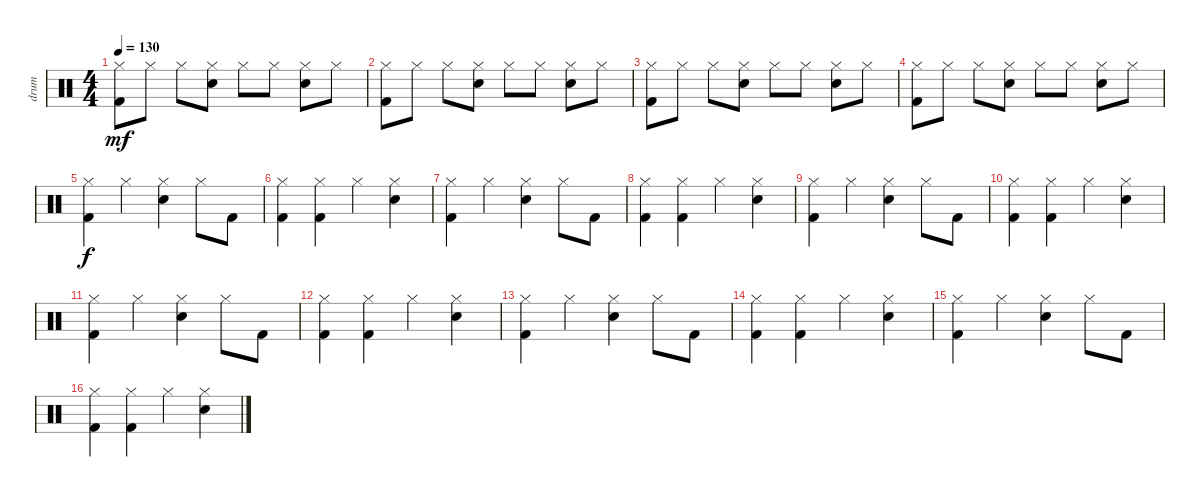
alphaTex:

\track ("drum" "drum") {instrument percussion}
\staff {score}
\articulation defaults
\ts (4 4)
\tempo 130
\clef neutral
\ks c
("Hi-Hat (closed)" "Kick (hit) 2").8{dy mf} "Hi-Hat (closed)".8 "Hi-Hat (closed)".8 ("Hi-Hat (closed)" "Snare (hit) 2").8 "Hi-Hat (closed)".8 "Hi-Hat (closed)".8 ("Hi-Hat (closed)" "Snare (hit) 2").8 "Hi-Hat (closed)".8 |
("Hi-Hat (closed)" "Kick (hit) 2").8 "Hi-Hat (closed)".8 "Hi-Hat (closed)".8 ("Hi-Hat (closed)" "Snare (hit) 2").8 "Hi-Hat (closed)".8 "Hi-Hat (closed)".8 ("Hi-Hat (closed)" "Snare (hit) 2").8 "Hi-Hat (closed)".8 |
("Hi-Hat (closed)" "Kick (hit) 2").8 "Hi-Hat (closed)".8 "Hi-Hat (closed)".8 ("Hi-Hat (closed)" "Snare (hit) 2").8 "Hi-Hat (closed)".8 "Hi-Hat (closed)".8 ("Hi-Hat (closed)" "Snare (hit) 2").8 "Hi-Hat (closed)".8 |
("Hi-Hat (closed)" "Kick (hit) 2").8 "Hi-Hat (closed)".8 "Hi-Hat (closed)".8 ("Hi-Hat (closed)" "Snare (hit) 2").8 "Hi-Hat (closed)".8 "Hi-Hat (closed)".8 ("Hi-Hat (closed)" "Snare (hit) 2").8 "Hi-Hat (closed)".8 |
("Hi-Hat (closed)" "Kick (hit) 2").4{dy f} "Hi-Hat (closed)".4 ("Hi-Hat (closed)" "Snare (hit) 2").4 "Hi-Hat (closed)".8 "Kick (hit) 2".8 |
("Hi-Hat (closed)" "Kick (hit) 2").4 ("Hi-Hat (closed)" "Kick (hit) 2").4 "Hi-Hat (closed)".4 ("Hi-Hat (closed)" "Snare (hit) 2").4 |
("Hi-Hat (closed)" "Kick (hit) 2").4 "Hi-Hat (closed)".4 ("Hi-Hat (closed)" "Snare (hit) 2").4 "Hi-Hat (closed)".8 "Kick (hit) 2".8 |
("Hi-Hat (closed)" "Kick (hit) 2").4 ("Hi-Hat (closed)" "Kick (hit) 2").4 "Hi-Hat (closed)".4 ("Hi-Hat (closed)" "Snare (hit) 2").4 |
("Hi-Hat (closed)" "Kick (hit) 2").4 "Hi-Hat (closed)".4 ("Hi-Hat (closed)" "Snare (hit) 2").4 "Hi-Hat (closed)".8 "Kick (hit) 2".8 |
("Hi-Hat (closed)" "Kick (hit) 2").4 ("Hi-Hat (closed)" "Kick (hit) 2").4 "Hi-Hat (closed)".4 ("Hi-Hat (closed)" "Snare (hit) 2").4 |
("Hi-Hat (closed)" "Kick (hit) 2").4 "Hi-Hat (closed)".4 ("Hi-Hat (closed)" "Snare (hit) 2").4 "Hi-Hat (closed)".8 "Kick (hit) 2".8 |
("Hi-Hat (closed)" "Kick (hit) 2").4 ("Hi-Hat (closed)" "Kick (hit) 2").4 "Hi-Hat (closed)".4 ("Hi-Hat (closed)" "Snare (hit) 2").4 |
("Hi-Hat (closed)" "Kick (hit) 2").4 "Hi-Hat (closed)".4 ("Hi-Hat (closed)" "Snare (hit) 2").4 "Hi-Hat (closed)".8 "Kick (hit) 2".8 |
("Hi-Hat (closed)" "Kick (hit) 2").4 ("Hi-Hat (closed)" "Kick (hit) 2").4 "Hi-Hat (closed)".4 ("Hi-Hat (closed)" "Snare (hit) 2").4 |
("Hi-Hat (closed)" "Kick (hit) 2").4 "Hi-Hat (closed)".4 ("Hi-Hat (closed)" "Snare (hit) 2").4 "Hi-Hat (closed)".8 "Kick (hit) 2".8 |
("Hi-Hat (closed)" "Kick (hit) 2").4 ("Hi-Hat (closed)" "Kick (hit) 2").4 "Hi-Hat (closed)".4 ("Hi-Hat (closed)" "Snare (hit) 2").4
